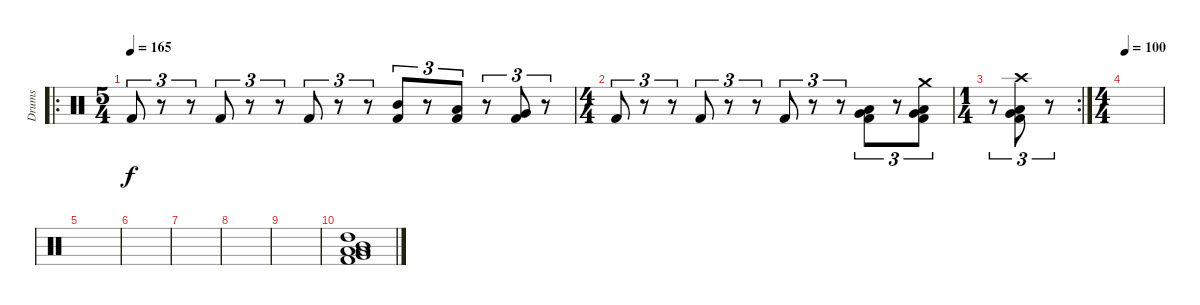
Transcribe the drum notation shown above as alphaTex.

\track ("Drums" "Drums") {instrument percussion}
\staff {score}
\articulation defaults
\ro
\ts (5 4)
\tempo 165
\clef neutral
\ks c "Kick (hit) 2".8{tu (3 2) dy f}
r.8{tu (3 2)} r.8{tu (3 2)} "Kick (hit) 2".8{tu (3 2)} r.8{tu (3 2)} r.8{tu (3 2)} "Kick (hit) 2".8{tu (3 2)} r.8{tu (3 2)} r.8{tu (3 2)} ("Mid Tom (hit)" "Kick (hit) 2").8{tu (3 2)} r.8{tu (3 2)} ("Low Tom (hit)" "Kick (hit) 2").8{tu (3 2)} r.8{tu (3 2)} ("Very Low Tom (hit)" "Kick (hit) 2").8{tu (3 2)} r.8{tu (3 2)} |
\ts (4 4)
"Kick (hit) 2".8{tu (3 2)} r.8{tu (3 2)} r.8{tu (3 2)} "Kick (hit) 2".8{tu (3 2)} r.8{tu (3 2)} r.8{tu (3 2)} "Kick (hit) 2".8{tu (3 2)} r.8{tu (3 2)} r.8{tu (3 2)} ("Very Low Tom (hit)" "Low Floor Tom (hit)" "Kick (hit) 2").8{tu (3 2)} r.8{tu (3 2)} ("Crash medium (hit)" "Low Tom (hit)" "Very Low Tom (hit)" "Kick (hit) 2").8{tu (3 2)} |
\rc 2
\ts (1 4)
r.8{tu (3 2)} ("Crash high (hit)" "Very Low Tom (hit)" "Low Floor Tom (hit)" "Kick (hit) 2").8{tu (3 2)} r.8{tu (3 2)} |
\ts (4 4)
\tempo 100
|
|
|
|
|
|
("High Tom (hit)" "Mid Tom (hit)" "Low Tom (hit)" "Very Low Tom (hit)" "Low Floor Tom (hit)" "Kick (hit) 2").1
